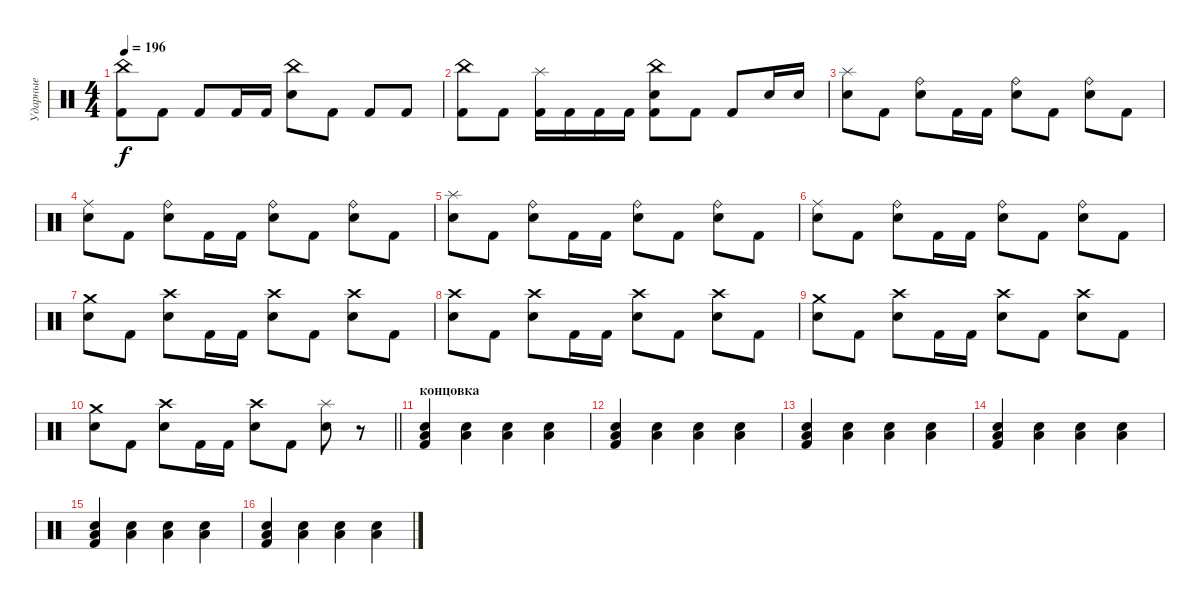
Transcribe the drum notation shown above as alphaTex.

\track ("Ударные" "Ударные") {instrument percussion}
\staff {score}
\articulation defaults
\ts (4 4)
\tempo 196
\clef neutral
\ks c
("China (hit)" "Kick (hit) 2").8{dy f} "Kick (hit) 2".8 "Kick (hit) 2".8 "Kick (hit) 2".16 "Kick (hit) 2".16 ("China (hit)" "Snare (hit) 2").8 "Kick (hit) 2".8 "Kick (hit) 2".8 "Kick (hit) 2".8 |
("China (hit)" "Kick (hit) 2").8 "Kick (hit) 2".8 ("Splash (hit)" "Kick (hit) 2").16 "Kick (hit) 2".16 "Kick (hit) 2".16 "Kick (hit) 2".16 ("China (hit)" "Snare (hit) 2" "Kick (hit) 2").8 "Kick (hit) 2".8 "Kick (hit) 2".8 "Snare (hit) 2".16 "Snare (hit) 2".16 |
("Splash (hit)" "Snare (hit) 2").8 "Kick (hit) 2".8 ("Ride (bell)" "Snare (hit) 2").8 "Kick (hit) 2".16 "Kick (hit) 2".16 ("Ride (bell)" "Snare (hit) 2").8 "Kick (hit) 2".8 ("Ride (bell)" "Snare (hit) 2").8 "Kick (hit) 2".8 |
("Ride (middle)" "Snare (hit) 2").8 "Kick (hit) 2".8 ("Ride (bell)" "Snare (hit) 2").8 "Kick (hit) 2".16 "Kick (hit) 2".16 ("Ride (bell)" "Snare (hit) 2").8 "Kick (hit) 2".8 ("Ride (bell)" "Snare (hit) 2").8 "Kick (hit) 2".8 |
("Splash (hit)" "Snare (hit) 2").8 "Kick (hit) 2".8 ("Ride (bell)" "Snare (hit) 2").8 "Kick (hit) 2".16 "Kick (hit) 2".16 ("Ride (bell)" "Snare (hit) 2").8 "Kick (hit) 2".8 ("Ride (bell)" "Snare (hit) 2").8 "Kick (hit) 2".8 |
("Ride (middle)" "Snare (hit) 2").8 "Kick (hit) 2".8 ("Ride (bell)" "Snare (hit) 2").8 "Kick (hit) 2".16 "Kick (hit) 2".16 ("Ride (bell)" "Snare (hit) 2").8 "Kick (hit) 2".8 ("Ride (bell)" "Snare (hit) 2").8 "Kick (hit) 2".8 |
("Crash medium (hit)" "Snare (hit) 2").8 "Kick (hit) 2".8 ("Crash high (hit)" "Snare (hit) 2").8 "Kick (hit) 2".16 "Kick (hit) 2".16 ("Crash high (hit)" "Snare (hit) 2").8 "Kick (hit) 2".8 ("Crash high (hit)" "Snare (hit) 2").8 "Kick (hit) 2".8 |
("Crash high (hit)" "Snare (hit) 2").8 "Kick (hit) 2".8 ("Crash high (hit)" "Snare (hit) 2").8 "Kick (hit) 2".16 "Kick (hit) 2".16 ("Crash high (hit)" "Snare (hit) 2").8 "Kick (hit) 2".8 ("Crash high (hit)" "Snare (hit) 2").8 "Kick (hit) 2".8 |
("Crash medium (hit)" "Snare (hit) 2").8 "Kick (hit) 2".8 ("Crash high (hit)" "Snare (hit) 2").8 "Kick (hit) 2".16 "Kick (hit) 2".16 ("Crash high (hit)" "Snare (hit) 2").8 "Kick (hit) 2".8 ("Crash high (hit)" "Snare (hit) 2").8 "Kick (hit) 2".8 |
\barLineRight lightlight
("Crash medium (hit)" "Snare (hit) 2").8 "Kick (hit) 2".8 ("Crash high (hit)" "Snare (hit) 2").8 "Kick (hit) 2".16 "Kick (hit) 2".16 ("Crash high (hit)" "Snare (hit) 2").8 "Kick (hit) 2".8 ("Splash (hit)" "Snare (hit) 2").8 r.8 |
\section ("" "концовка")
("Low Floor Tom (hit)" "Snare (hit) 2" "Kick (hit) 2").4 ("Low Floor Tom (hit)" "Snare (hit) 2").4 ("Low Floor Tom (hit)" "Snare (hit) 2").4 ("Low Floor Tom (hit)" "Snare (hit) 2").4 |
("Low Floor Tom (hit)" "Snare (hit) 2" "Kick (hit) 2").4 ("Low Floor Tom (hit)" "Snare (hit) 2").4 ("Low Floor Tom (hit)" "Snare (hit) 2").4 ("Low Floor Tom (hit)" "Snare (hit) 2").4 |
("Low Floor Tom (hit)" "Snare (hit) 2" "Kick (hit) 2").4 ("Low Floor Tom (hit)" "Snare (hit) 2").4 ("Low Floor Tom (hit)" "Snare (hit) 2").4 ("Low Floor Tom (hit)" "Snare (hit) 2").4 |
("Low Floor Tom (hit)" "Snare (hit) 2" "Kick (hit) 2").4 ("Low Floor Tom (hit)" "Snare (hit) 2").4 ("Low Floor Tom (hit)" "Snare (hit) 2").4 ("Low Floor Tom (hit)" "Snare (hit) 2").4 |
("Low Floor Tom (hit)" "Snare (hit) 2" "Kick (hit) 2").4 ("Low Floor Tom (hit)" "Snare (hit) 2").4 ("Low Floor Tom (hit)" "Snare (hit) 2").4 ("Low Floor Tom (hit)" "Snare (hit) 2").4 |
("Low Floor Tom (hit)" "Snare (hit) 2" "Kick (hit) 2").4 ("Low Floor Tom (hit)" "Snare (hit) 2").4 ("Low Floor Tom (hit)" "Snare (hit) 2").4 ("Low Floor Tom (hit)" "Snare (hit) 2").4
